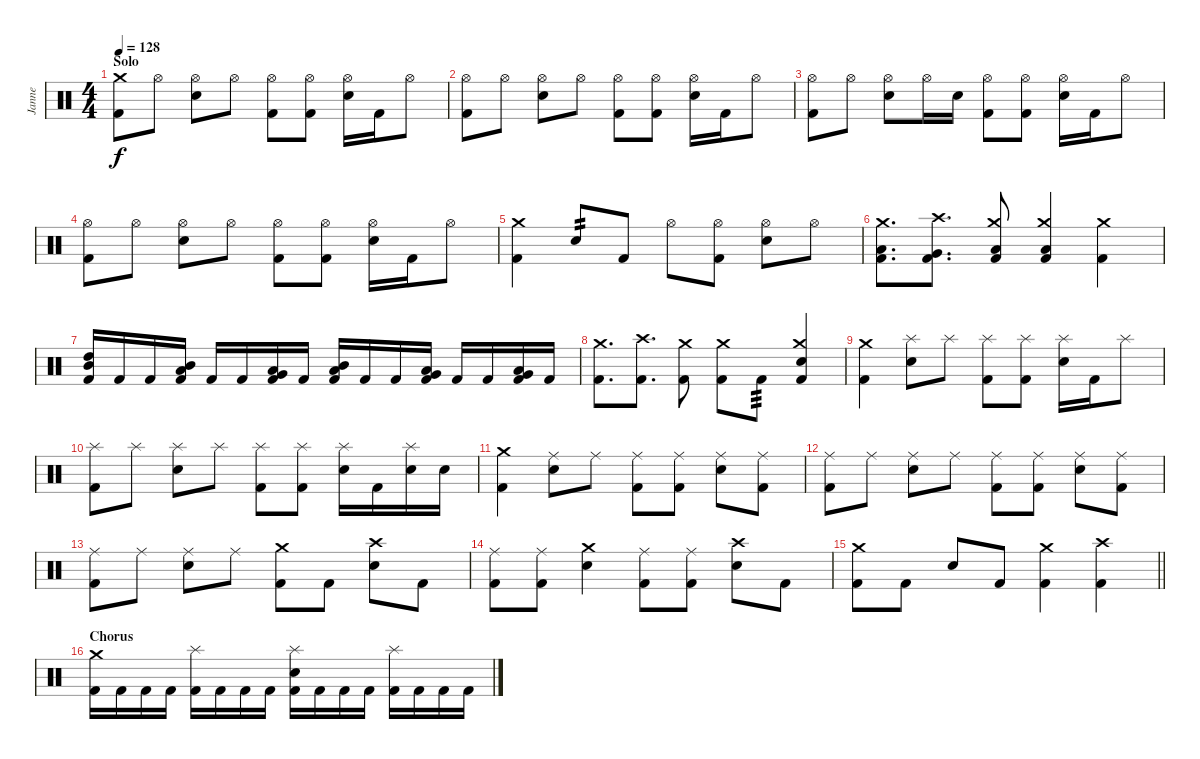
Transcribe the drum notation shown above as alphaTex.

\track ("Janne" "Janne") {instrument percussion}
\staff {score}
\articulation defaults
\ts (4 4)
\section ("" "Solo")
\tempo 128
\clef neutral
\ks c
("Kick (hit) 2" "Crash medium (hit)").8{dy f} "Hi-Hat (open)".8 ("Snare (hit) 2" "Hi-Hat (open)").8 "Hi-Hat (open)".8 ("Kick (hit) 2" "Hi-Hat (open)").8 ("Kick (hit) 2" "Hi-Hat (open)").8 ("Snare (hit) 2" "Hi-Hat (open)").16 "Kick (hit) 2".16 "Hi-Hat (open)".8 |
("Kick (hit) 2" "Hi-Hat (open)").8 "Hi-Hat (open)".8 ("Snare (hit) 2" "Hi-Hat (open)").8 "Hi-Hat (open)".8 ("Kick (hit) 2" "Hi-Hat (open)").8 ("Kick (hit) 2" "Hi-Hat (open)").8 ("Snare (hit) 2" "Hi-Hat (open)").16 "Kick (hit) 2".16 "Hi-Hat (open)".8 |
("Kick (hit) 2" "Hi-Hat (open)").8 "Hi-Hat (open)".8 ("Snare (hit) 2" "Hi-Hat (open)").8 "Hi-Hat (open)".16 "Snare (hit) 2".16 ("Kick (hit) 2" "Hi-Hat (open)").8 ("Kick (hit) 2" "Hi-Hat (open)").8 ("Snare (hit) 2" "Hi-Hat (open)").16 "Kick (hit) 2".16 "Hi-Hat (open)".8 |
("Kick (hit) 2" "Hi-Hat (open)").8 "Hi-Hat (open)".8 ("Snare (hit) 2" "Hi-Hat (open)").8 "Hi-Hat (open)".8 ("Kick (hit) 2" "Hi-Hat (open)").8 ("Kick (hit) 2" "Hi-Hat (open)").8 ("Snare (hit) 2" "Hi-Hat (open)").16 "Kick (hit) 2".16 "Hi-Hat (open)".8 |
("Kick (hit) 2" "Crash medium (hit)").4 "Snare (hit) 2".8{tp 2} "Kick (hit) 2".8 "Hi-Hat (open)".8 ("Kick (hit) 2" "Hi-Hat (open)").8 ("Snare (hit) 2" "Hi-Hat (open)").8 "Hi-Hat (open)".8 |
("Kick (hit) 2" "Low Tom (hit)" "Crash medium (hit)").8{d} ("Kick (hit) 2" "Very Low Tom (hit)" "Crash high (hit)").8{d} ("Kick (hit) 2" "Low Floor Tom (hit)" "Crash medium (hit)").8 ("Kick (hit) 2" "Low Floor Tom (hit)" "Crash medium (hit)").4 ("Kick (hit) 2" "Crash medium (hit)").4 |
("Kick (hit) 2" "High Tom (hit)" "Mid Tom (hit)").16 "Kick (hit) 2".16 "Kick (hit) 2".16 ("Kick (hit) 2" "Mid Tom (hit)" "Low Tom (hit)").16 "Kick (hit) 2".16 "Kick (hit) 2".16 ("Kick (hit) 2" "Low Tom (hit)" "Very Low Tom (hit)").16 "Kick (hit) 2".16 ("Kick (hit) 2" "Mid Tom (hit)" "Low Tom (hit)").16 "Kick (hit) 2".16 "Kick (hit) 2".16 ("Kick (hit) 2" "Low Tom (hit)" "Very Low Tom (hit)").16 "Kick (hit) 2".16 "Kick (hit) 2".16 ("Kick (hit) 2" "Very Low Tom (hit)" "Low Floor Tom (hit)").16 "Kick (hit) 2".16 |
("Kick (hit) 2" "Crash medium (hit)").8{d} ("Kick (hit) 2" "Crash high (hit)").8{d} ("Kick (hit) 2" "Crash medium (hit)").8 ("Kick (hit) 2" "Crash medium (hit)").8 "Kick (hit) 2".8{tp 3} ("Kick (hit) 2" "Snare (hit) 2" "Crash medium (hit)").4 |
("Kick (hit) 2" "Crash medium (hit)").4 ("Snare (hit) 2" "Splash (hit)").8 "Splash (hit)".8 ("Kick (hit) 2" "Splash (hit)").8 ("Kick (hit) 2" "Splash (hit)").8 ("Snare (hit) 2" "Splash (hit)").16 "Kick (hit) 2".16 "Splash (hit)".8 |
("Kick (hit) 2" "Splash (hit)").8 "Splash (hit)".8 ("Snare (hit) 2" "Splash (hit)").8 "Splash (hit)".8 ("Kick (hit) 2" "Splash (hit)").8 ("Kick (hit) 2" "Splash (hit)").8 ("Snare (hit) 2" "Splash (hit)").16 "Kick (hit) 2".16 ("Snare (hit) 2" "Splash (hit)").16 "Snare (hit) 2".16 |
("Kick (hit) 2" "Crash medium (hit)").4 ("Snare (hit) 2" "Ride (middle)").8 "Ride (middle)".8 ("Kick (hit) 2" "Ride (middle)").8 ("Kick (hit) 2" "Ride (middle)").8 ("Snare (hit) 2" "Ride (middle)").8 ("Kick (hit) 2" "Ride (middle)").8 |
("Kick (hit) 2" "Ride (middle)").8 "Ride (middle)".8 ("Snare (hit) 2" "Ride (middle)").8 "Ride (middle)".8 ("Kick (hit) 2" "Ride (middle)").8 ("Kick (hit) 2" "Ride (middle)").8 ("Snare (hit) 2" "Ride (middle)").8 ("Kick (hit) 2" "Ride (middle)").8 |
("Kick (hit) 2" "Ride (middle)").8 "Ride (middle)".8 ("Snare (hit) 2" "Ride (middle)").8 "Ride (middle)".8 ("Kick (hit) 2" "Crash medium (hit)").8 "Kick (hit) 2".8 ("Snare (hit) 2" "Crash high (hit)").8 "Kick (hit) 2".8 |
("Kick (hit) 2" "Ride (middle)").8 ("Kick (hit) 2" "Ride (middle)").8 ("Snare (hit) 2" "Crash medium (hit)").4 ("Kick (hit) 2" "Ride (middle)").8 ("Kick (hit) 2" "Ride (middle)").8 ("Snare (hit) 2" "Crash high (hit)").8 "Kick (hit) 2".8 |
\barLineRight lightlight
("Kick (hit) 2" "Crash medium (hit)").8 "Kick (hit) 2".8 "Snare (hit) 2".8 "Kick (hit) 2".8 ("Kick (hit) 2" "Crash medium (hit)").4 ("Kick (hit) 2" "Crash high (hit)").4 |
\section ("" "Chorus")
("Kick (hit) 2" "Crash medium (hit)").16 "Kick (hit) 2".16 "Kick (hit) 2".16 "Kick (hit) 2".16 ("Kick (hit) 2" "Splash (hit)").16 "Kick (hit) 2".16 "Kick (hit) 2".16 "Kick (hit) 2".16 ("Kick (hit) 2" "Snare (hit) 2" "Splash (hit)").16 "Kick (hit) 2".16 "Kick (hit) 2".16 "Kick (hit) 2".16 ("Kick (hit) 2" "Splash (hit)").16 "Kick (hit) 2".16 "Kick (hit) 2".16 "Kick (hit) 2".16
